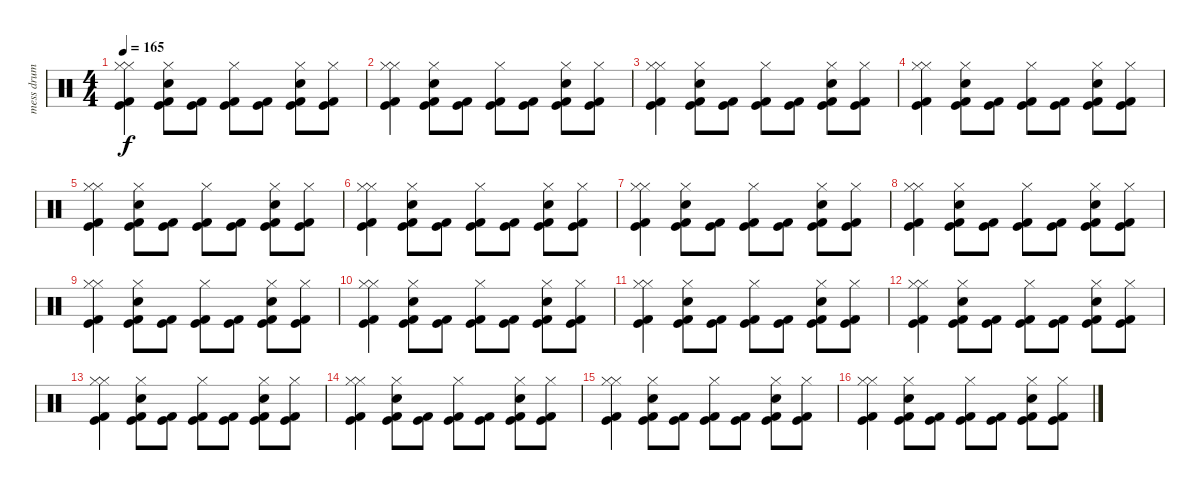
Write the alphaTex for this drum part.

\track ("mess drum" "mess drum") {instrument percussion}
\staff {score}
\articulation defaults
\ts (4 4)
\tempo 165
\clef neutral
\ks c
("Hi-Hat (closed)" "Kick (hit)" "Kick (hit) 2" "Hi-Hat (closed)").4{dy f} ("Kick (hit)" "Kick (hit) 2" "Hi-Hat (closed)" "Electric Snare (hit)").8 ("Kick (hit)" "Kick (hit) 2").8 ("Kick (hit)" "Kick (hit) 2" "Hi-Hat (closed)").8 ("Kick (hit)" "Kick (hit) 2").8 ("Kick (hit)" "Kick (hit) 2" "Hi-Hat (closed)" "Electric Snare (hit)").8 ("Kick (hit)" "Kick (hit) 2" "Hi-Hat (closed)").8 |
("Hi-Hat (closed)" "Kick (hit)" "Kick (hit) 2" "Hi-Hat (closed)").4 ("Kick (hit)" "Kick (hit) 2" "Hi-Hat (closed)" "Electric Snare (hit)").8 ("Kick (hit)" "Kick (hit) 2").8 ("Kick (hit)" "Kick (hit) 2" "Hi-Hat (closed)").8 ("Kick (hit)" "Kick (hit) 2").8 ("Kick (hit)" "Kick (hit) 2" "Hi-Hat (closed)" "Electric Snare (hit)").8 ("Kick (hit)" "Kick (hit) 2" "Hi-Hat (closed)").8 |
("Hi-Hat (closed)" "Kick (hit)" "Kick (hit) 2" "Hi-Hat (closed)").4 ("Kick (hit)" "Kick (hit) 2" "Hi-Hat (closed)" "Electric Snare (hit)").8 ("Kick (hit)" "Kick (hit) 2").8 ("Kick (hit)" "Kick (hit) 2" "Hi-Hat (closed)").8 ("Kick (hit)" "Kick (hit) 2").8 ("Kick (hit)" "Kick (hit) 2" "Hi-Hat (closed)" "Electric Snare (hit)").8 ("Kick (hit)" "Kick (hit) 2" "Hi-Hat (closed)").8 |
("Hi-Hat (closed)" "Kick (hit)" "Kick (hit) 2" "Hi-Hat (closed)").4 ("Kick (hit)" "Kick (hit) 2" "Hi-Hat (closed)" "Electric Snare (hit)").8 ("Kick (hit)" "Kick (hit) 2").8 ("Kick (hit)" "Kick (hit) 2" "Hi-Hat (closed)").8 ("Kick (hit)" "Kick (hit) 2").8 ("Kick (hit)" "Kick (hit) 2" "Hi-Hat (closed)" "Electric Snare (hit)").8 ("Kick (hit)" "Kick (hit) 2" "Hi-Hat (closed)").8 |
("Hi-Hat (closed)" "Kick (hit)" "Kick (hit) 2" "Hi-Hat (closed)").4 ("Kick (hit)" "Kick (hit) 2" "Hi-Hat (closed)" "Electric Snare (hit)").8 ("Kick (hit)" "Kick (hit) 2").8 ("Kick (hit)" "Kick (hit) 2" "Hi-Hat (closed)").8 ("Kick (hit)" "Kick (hit) 2").8 ("Kick (hit)" "Kick (hit) 2" "Hi-Hat (closed)" "Electric Snare (hit)").8 ("Kick (hit)" "Kick (hit) 2" "Hi-Hat (closed)").8 |
("Hi-Hat (closed)" "Kick (hit)" "Kick (hit) 2" "Hi-Hat (closed)").4 ("Kick (hit)" "Kick (hit) 2" "Hi-Hat (closed)" "Electric Snare (hit)").8 ("Kick (hit)" "Kick (hit) 2").8 ("Kick (hit)" "Kick (hit) 2" "Hi-Hat (closed)").8 ("Kick (hit)" "Kick (hit) 2").8 ("Kick (hit)" "Kick (hit) 2" "Hi-Hat (closed)" "Electric Snare (hit)").8 ("Kick (hit)" "Kick (hit) 2" "Hi-Hat (closed)").8 |
("Hi-Hat (closed)" "Kick (hit)" "Kick (hit) 2" "Hi-Hat (closed)").4 ("Kick (hit)" "Kick (hit) 2" "Hi-Hat (closed)" "Electric Snare (hit)").8 ("Kick (hit)" "Kick (hit) 2").8 ("Kick (hit)" "Kick (hit) 2" "Hi-Hat (closed)").8 ("Kick (hit)" "Kick (hit) 2").8 ("Kick (hit)" "Kick (hit) 2" "Hi-Hat (closed)" "Electric Snare (hit)").8 ("Kick (hit)" "Kick (hit) 2" "Hi-Hat (closed)").8 |
("Hi-Hat (closed)" "Kick (hit)" "Kick (hit) 2" "Hi-Hat (closed)").4 ("Kick (hit)" "Kick (hit) 2" "Hi-Hat (closed)" "Electric Snare (hit)").8 ("Kick (hit)" "Kick (hit) 2").8 ("Kick (hit)" "Kick (hit) 2" "Hi-Hat (closed)").8 ("Kick (hit)" "Kick (hit) 2").8 ("Kick (hit)" "Kick (hit) 2" "Hi-Hat (closed)" "Electric Snare (hit)").8 ("Kick (hit)" "Kick (hit) 2" "Hi-Hat (closed)").8 |
("Hi-Hat (closed)" "Kick (hit)" "Kick (hit) 2" "Hi-Hat (closed)").4 ("Kick (hit)" "Kick (hit) 2" "Hi-Hat (closed)" "Electric Snare (hit)").8 ("Kick (hit)" "Kick (hit) 2").8 ("Kick (hit)" "Kick (hit) 2" "Hi-Hat (closed)").8 ("Kick (hit)" "Kick (hit) 2").8 ("Kick (hit)" "Kick (hit) 2" "Hi-Hat (closed)" "Electric Snare (hit)").8 ("Kick (hit)" "Kick (hit) 2" "Hi-Hat (closed)").8 |
("Hi-Hat (closed)" "Kick (hit)" "Kick (hit) 2" "Hi-Hat (closed)").4 ("Kick (hit)" "Kick (hit) 2" "Hi-Hat (closed)" "Electric Snare (hit)").8 ("Kick (hit)" "Kick (hit) 2").8 ("Kick (hit)" "Kick (hit) 2" "Hi-Hat (closed)").8 ("Kick (hit)" "Kick (hit) 2").8 ("Kick (hit)" "Kick (hit) 2" "Hi-Hat (closed)" "Electric Snare (hit)").8 ("Kick (hit)" "Kick (hit) 2" "Hi-Hat (closed)").8 |
("Hi-Hat (closed)" "Kick (hit)" "Kick (hit) 2" "Hi-Hat (closed)").4 ("Kick (hit)" "Kick (hit) 2" "Hi-Hat (closed)" "Electric Snare (hit)").8 ("Kick (hit)" "Kick (hit) 2").8 ("Kick (hit)" "Kick (hit) 2" "Hi-Hat (closed)").8 ("Kick (hit)" "Kick (hit) 2").8 ("Kick (hit)" "Kick (hit) 2" "Hi-Hat (closed)" "Electric Snare (hit)").8 ("Kick (hit)" "Kick (hit) 2" "Hi-Hat (closed)").8 |
("Hi-Hat (closed)" "Kick (hit)" "Kick (hit) 2" "Hi-Hat (closed)").4 ("Kick (hit)" "Kick (hit) 2" "Hi-Hat (closed)" "Electric Snare (hit)").8 ("Kick (hit)" "Kick (hit) 2").8 ("Kick (hit)" "Kick (hit) 2" "Hi-Hat (closed)").8 ("Kick (hit)" "Kick (hit) 2").8 ("Kick (hit)" "Kick (hit) 2" "Hi-Hat (closed)" "Electric Snare (hit)").8 ("Kick (hit)" "Kick (hit) 2" "Hi-Hat (closed)").8 |
("Hi-Hat (closed)" "Kick (hit)" "Kick (hit) 2" "Hi-Hat (closed)").4 ("Kick (hit)" "Kick (hit) 2" "Hi-Hat (closed)" "Electric Snare (hit)").8 ("Kick (hit)" "Kick (hit) 2").8 ("Kick (hit)" "Kick (hit) 2" "Hi-Hat (closed)").8 ("Kick (hit)" "Kick (hit) 2").8 ("Kick (hit)" "Kick (hit) 2" "Hi-Hat (closed)" "Electric Snare (hit)").8 ("Kick (hit)" "Kick (hit) 2" "Hi-Hat (closed)").8 |
("Hi-Hat (closed)" "Kick (hit)" "Kick (hit) 2" "Hi-Hat (closed)").4 ("Kick (hit)" "Kick (hit) 2" "Hi-Hat (closed)" "Electric Snare (hit)").8 ("Kick (hit)" "Kick (hit) 2").8 ("Kick (hit)" "Kick (hit) 2" "Hi-Hat (closed)").8 ("Kick (hit)" "Kick (hit) 2").8 ("Kick (hit)" "Kick (hit) 2" "Hi-Hat (closed)" "Electric Snare (hit)").8 ("Kick (hit)" "Kick (hit) 2" "Hi-Hat (closed)").8 |
("Hi-Hat (closed)" "Kick (hit)" "Kick (hit) 2" "Hi-Hat (closed)").4 ("Kick (hit)" "Kick (hit) 2" "Hi-Hat (closed)" "Electric Snare (hit)").8 ("Kick (hit)" "Kick (hit) 2").8 ("Kick (hit)" "Kick (hit) 2" "Hi-Hat (closed)").8 ("Kick (hit)" "Kick (hit) 2").8 ("Kick (hit)" "Kick (hit) 2" "Hi-Hat (closed)" "Electric Snare (hit)").8 ("Kick (hit)" "Kick (hit) 2" "Hi-Hat (closed)").8 |
("Hi-Hat (closed)" "Kick (hit)" "Kick (hit) 2" "Hi-Hat (closed)").4 ("Kick (hit)" "Kick (hit) 2" "Hi-Hat (closed)" "Electric Snare (hit)").8 ("Kick (hit)" "Kick (hit) 2").8 ("Kick (hit)" "Kick (hit) 2" "Hi-Hat (closed)").8 ("Kick (hit)" "Kick (hit) 2").8 ("Kick (hit)" "Kick (hit) 2" "Hi-Hat (closed)" "Electric Snare (hit)").8 ("Kick (hit)" "Kick (hit) 2" "Hi-Hat (closed)").8
